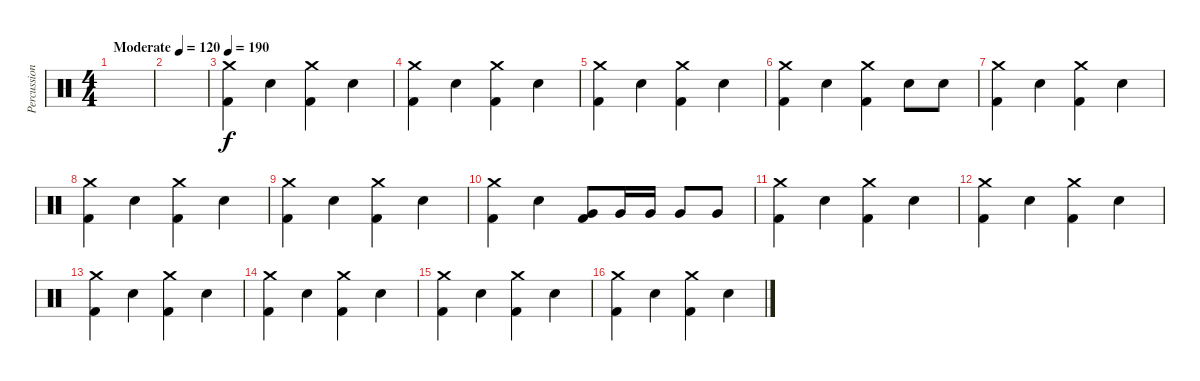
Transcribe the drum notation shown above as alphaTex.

\track ("Percussion" "Percussion") {instrument percussion}
\staff {score}
\articulation defaults
\ts (4 4)
\tempo (120 "Moderate")
\clef neutral
\ks c
|
|
\tempo 190
("Crash medium (hit)" "Kick (hit) 2").4 "Snare (hit) 2".4 ("Crash medium (hit)" "Kick (hit) 2").4 "Snare (hit) 2".4 |
("Crash medium (hit)" "Kick (hit) 2").4 "Snare (hit) 2".4 ("Crash medium (hit)" "Kick (hit) 2").4 "Snare (hit) 2".4 |
("Crash medium (hit)" "Kick (hit) 2").4 "Snare (hit) 2".4 ("Crash medium (hit)" "Kick (hit) 2").4 "Snare (hit) 2".4 |
("Crash medium (hit)" "Kick (hit) 2").4 "Snare (hit) 2".4 ("Crash medium (hit)" "Kick (hit) 2").4 "Snare (hit) 2".8 "Snare (hit) 2".8 |
("Crash medium (hit)" "Kick (hit) 2").4 "Snare (hit) 2".4 ("Crash medium (hit)" "Kick (hit) 2").4 "Snare (hit) 2".4 |
("Crash medium (hit)" "Kick (hit) 2").4 "Snare (hit) 2".4 ("Crash medium (hit)" "Kick (hit) 2").4 "Snare (hit) 2".4 |
("Crash medium (hit)" "Kick (hit) 2").4 "Snare (hit) 2".4 ("Crash medium (hit)" "Kick (hit) 2").4 "Snare (hit) 2".4 |
("Crash medium (hit)" "Kick (hit) 2").4 "Snare (hit) 2".4 ("Very Low Tom (hit)" "Kick (hit) 2").8 "Very Low Tom (hit)".16 "Very Low Tom (hit)".16 "Very Low Tom (hit)".8 "Very Low Tom (hit)".8 |
("Crash medium (hit)" "Kick (hit) 2").4 "Snare (hit) 2".4 ("Crash medium (hit)" "Kick (hit) 2").4 "Snare (hit) 2".4 |
("Crash medium (hit)" "Kick (hit) 2").4 "Snare (hit) 2".4 ("Crash medium (hit)" "Kick (hit) 2").4 "Snare (hit) 2".4 |
("Crash medium (hit)" "Kick (hit) 2").4 "Snare (hit) 2".4 ("Crash medium (hit)" "Kick (hit) 2").4 "Snare (hit) 2".4 |
("Crash medium (hit)" "Kick (hit) 2").4 "Snare (hit) 2".4 ("Crash medium (hit)" "Kick (hit) 2").4 "Snare (hit) 2".4 |
("Crash medium (hit)" "Kick (hit) 2").4 "Snare (hit) 2".4 ("Crash medium (hit)" "Kick (hit) 2").4 "Snare (hit) 2".4 |
("Crash medium (hit)" "Kick (hit) 2").4 "Snare (hit) 2".4 ("Crash medium (hit)" "Kick (hit) 2").4 "Snare (hit) 2".4
